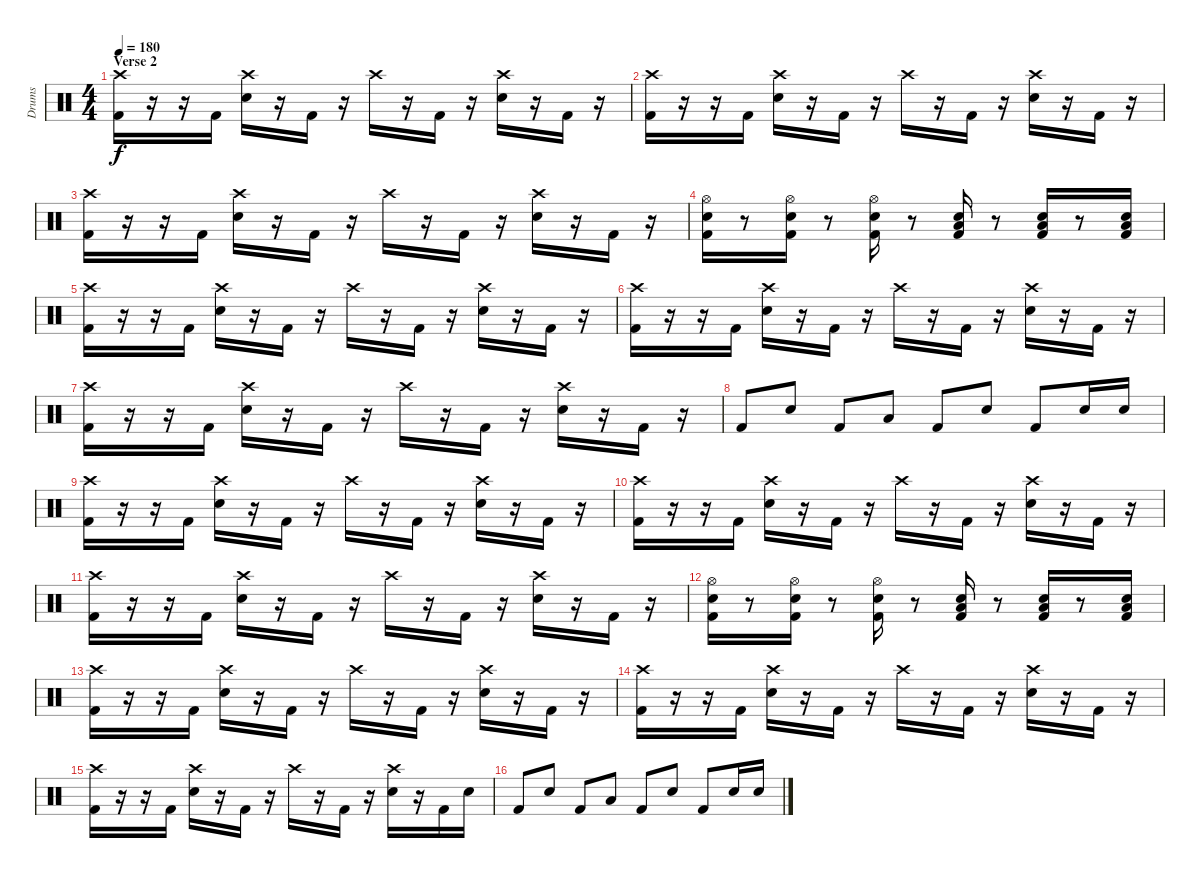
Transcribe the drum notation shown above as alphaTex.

\track ("Drums" "Drums") {instrument percussion}
\staff {score}
\articulation defaults
\ts (4 4)
\section ("" "Verse 2")
\tempo 180
\clef neutral
\ks c
("Crash high (hit)" "Kick (hit) 2").16{dy f} r.16 r.16 "Kick (hit) 2".16 ("Crash high (hit)" "Electric Snare (hit)").16 r.16 "Kick (hit) 2".16 r.16 "Crash high (hit)".16 r.16 "Kick (hit) 2".16 r.16 ("Crash high (hit)" "Electric Snare (hit)").16 r.16 "Kick (hit) 2".16 r.16 |
("Crash high (hit)" "Kick (hit) 2").16 r.16 r.16 "Kick (hit) 2".16 ("Crash high (hit)" "Electric Snare (hit)").16 r.16 "Kick (hit) 2".16 r.16 "Crash high (hit)".16 r.16 "Kick (hit) 2".16 r.16 ("Crash high (hit)" "Electric Snare (hit)").16 r.16 "Kick (hit) 2".16 r.16 |
("Crash high (hit)" "Kick (hit) 2").16 r.16 r.16 "Kick (hit) 2".16 ("Crash high (hit)" "Electric Snare (hit)").16 r.16 "Kick (hit) 2".16 r.16 "Crash high (hit)".16 r.16 "Kick (hit) 2".16 r.16 ("Crash high (hit)" "Electric Snare (hit)").16 r.16 "Kick (hit) 2".16 r.16 |
("Hi-Hat (open)" "Electric Snare (hit)" "Kick (hit) 2").16 r.8 ("Hi-Hat (open)" "Electric Snare (hit)" "Kick (hit) 2").16 r.8 ("Hi-Hat (open)" "Electric Snare (hit)" "Kick (hit) 2").16 r.8 ("Low Floor Tom (hit)" "Electric Snare (hit)" "Kick (hit) 2").16 r.8 ("Low Floor Tom (hit)" "Electric Snare (hit)" "Kick (hit) 2").16 r.8 ("Low Floor Tom (hit)" "Electric Snare (hit)" "Kick (hit) 2").16 |
("Crash high (hit)" "Kick (hit) 2").16 r.16 r.16 "Kick (hit) 2".16 ("Crash high (hit)" "Electric Snare (hit)").16 r.16 "Kick (hit) 2".16 r.16 "Crash high (hit)".16 r.16 "Kick (hit) 2".16 r.16 ("Crash high (hit)" "Electric Snare (hit)").16 r.16 "Kick (hit) 2".16 r.16 |
("Crash high (hit)" "Kick (hit) 2").16 r.16 r.16 "Kick (hit) 2".16 ("Crash high (hit)" "Electric Snare (hit)").16 r.16 "Kick (hit) 2".16 r.16 "Crash high (hit)".16 r.16 "Kick (hit) 2".16 r.16 ("Crash high (hit)" "Electric Snare (hit)").16 r.16 "Kick (hit) 2".16 r.16 |
("Crash high (hit)" "Kick (hit) 2").16 r.16 r.16 "Kick (hit) 2".16 ("Crash high (hit)" "Electric Snare (hit)").16 r.16 "Kick (hit) 2".16 r.16 "Crash high (hit)".16 r.16 "Kick (hit) 2".16 r.16 ("Crash high (hit)" "Electric Snare (hit)").16 r.16 "Kick (hit) 2".16 r.16 |
"Kick (hit) 2".8 "Electric Snare (hit)".8 "Kick (hit) 2".8 "Low Tom (hit)".8 "Kick (hit) 2".8 "Electric Snare (hit)".8 "Kick (hit) 2".8 "Electric Snare (hit)".16 "Electric Snare (hit)".16 |
("Crash high (hit)" "Kick (hit) 2").16 r.16 r.16 "Kick (hit) 2".16 ("Crash high (hit)" "Electric Snare (hit)").16 r.16 "Kick (hit) 2".16 r.16 "Crash high (hit)".16 r.16 "Kick (hit) 2".16 r.16 ("Crash high (hit)" "Electric Snare (hit)").16 r.16 "Kick (hit) 2".16 r.16 |
("Crash high (hit)" "Kick (hit) 2").16 r.16 r.16 "Kick (hit) 2".16 ("Crash high (hit)" "Electric Snare (hit)").16 r.16 "Kick (hit) 2".16 r.16 "Crash high (hit)".16 r.16 "Kick (hit) 2".16 r.16 ("Crash high (hit)" "Electric Snare (hit)").16 r.16 "Kick (hit) 2".16 r.16 |
("Crash high (hit)" "Kick (hit) 2").16 r.16 r.16 "Kick (hit) 2".16 ("Crash high (hit)" "Electric Snare (hit)").16 r.16 "Kick (hit) 2".16 r.16 "Crash high (hit)".16 r.16 "Kick (hit) 2".16 r.16 ("Crash high (hit)" "Electric Snare (hit)").16 r.16 "Kick (hit) 2".16 r.16 |
("Hi-Hat (open)" "Electric Snare (hit)" "Kick (hit) 2").16 r.8 ("Hi-Hat (open)" "Electric Snare (hit)" "Kick (hit) 2").16 r.8 ("Hi-Hat (open)" "Electric Snare (hit)" "Kick (hit) 2").16 r.8 ("Low Floor Tom (hit)" "Electric Snare (hit)" "Kick (hit) 2").16 r.8 ("Low Floor Tom (hit)" "Electric Snare (hit)" "Kick (hit) 2").16 r.8 ("Low Floor Tom (hit)" "Electric Snare (hit)" "Kick (hit) 2").16 |
("Crash high (hit)" "Kick (hit) 2").16 r.16 r.16 "Kick (hit) 2".16 ("Crash high (hit)" "Electric Snare (hit)").16 r.16 "Kick (hit) 2".16 r.16 "Crash high (hit)".16 r.16 "Kick (hit) 2".16 r.16 ("Crash high (hit)" "Electric Snare (hit)").16 r.16 "Kick (hit) 2".16 r.16 |
("Crash high (hit)" "Kick (hit) 2").16 r.16 r.16 "Kick (hit) 2".16 ("Crash high (hit)" "Electric Snare (hit)").16 r.16 "Kick (hit) 2".16 r.16 "Crash high (hit)".16 r.16 "Kick (hit) 2".16 r.16 ("Crash high (hit)" "Electric Snare (hit)").16 r.16 "Kick (hit) 2".16 r.16 |
("Crash high (hit)" "Kick (hit) 2").16 r.16 r.16 "Kick (hit) 2".16 ("Crash high (hit)" "Electric Snare (hit)").16 r.16 "Kick (hit) 2".16 r.16 "Crash high (hit)".16 r.16 "Kick (hit) 2".16 r.16 ("Crash high (hit)" "Electric Snare (hit)").16 r.16 "Kick (hit) 2".16 "Electric Snare (hit)".16 |
"Kick (hit) 2".8 "Electric Snare (hit)".8 "Kick (hit) 2".8 "Low Tom (hit)".8 "Kick (hit) 2".8 "Electric Snare (hit)".8 "Kick (hit) 2".8 "Electric Snare (hit)".16 "Electric Snare (hit)".16
